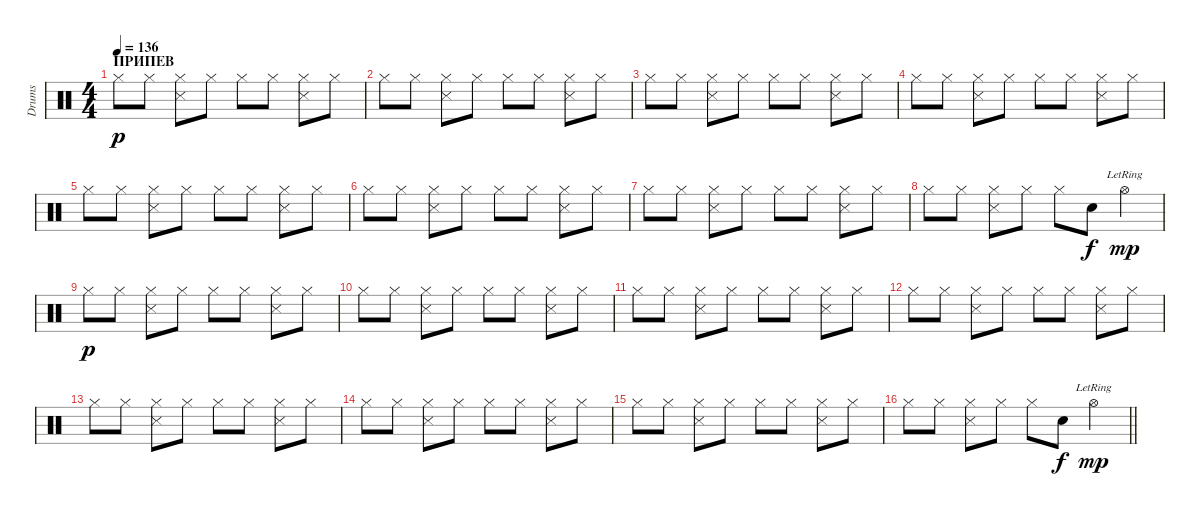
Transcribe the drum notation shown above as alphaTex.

\track ("Drums" "Drums") {instrument percussion}
\staff {score}
\articulation defaults
\ts (4 4)
\section ("" "ПРИПЕВ")
\tempo 136
\clef neutral
\ks c "Hi-Hat (closed)".8{dy p} "Hi-Hat (closed)".8
("Hi-Hat (closed)" "Snare (side stick) 3").8 "Hi-Hat (closed)".8 "Hi-Hat (closed)".8 "Hi-Hat (closed)".8 ("Hi-Hat (closed)" "Snare (side stick) 3").8 "Hi-Hat (closed)".8 |
"Hi-Hat (closed)".8 "Hi-Hat (closed)".8 ("Hi-Hat (closed)" "Snare (side stick) 3").8 "Hi-Hat (closed)".8 "Hi-Hat (closed)".8 "Hi-Hat (closed)".8 ("Hi-Hat (closed)" "Snare (side stick) 3").8 "Hi-Hat (closed)".8 |
"Hi-Hat (closed)".8 "Hi-Hat (closed)".8 ("Hi-Hat (closed)" "Snare (side stick) 3").8 "Hi-Hat (closed)".8 "Hi-Hat (closed)".8 "Hi-Hat (closed)".8 ("Hi-Hat (closed)" "Snare (side stick) 3").8 "Hi-Hat (closed)".8 |
"Hi-Hat (closed)".8 "Hi-Hat (closed)".8 ("Hi-Hat (closed)" "Snare (side stick) 3").8 "Hi-Hat (closed)".8 "Hi-Hat (closed)".8 "Hi-Hat (closed)".8 ("Hi-Hat (closed)" "Snare (side stick) 3").8 "Hi-Hat (closed)".8 |
"Hi-Hat (closed)".8 "Hi-Hat (closed)".8 ("Hi-Hat (closed)" "Snare (side stick) 3").8 "Hi-Hat (closed)".8 "Hi-Hat (closed)".8 "Hi-Hat (closed)".8 ("Hi-Hat (closed)" "Snare (side stick) 3").8 "Hi-Hat (closed)".8 |
"Hi-Hat (closed)".8 "Hi-Hat (closed)".8 ("Hi-Hat (closed)" "Snare (side stick) 3").8 "Hi-Hat (closed)".8 "Hi-Hat (closed)".8 "Hi-Hat (closed)".8 ("Hi-Hat (closed)" "Snare (side stick) 3").8 "Hi-Hat (closed)".8 |
"Hi-Hat (closed)".8 "Hi-Hat (closed)".8 ("Hi-Hat (closed)" "Snare (side stick) 3").8 "Hi-Hat (closed)".8 "Hi-Hat (closed)".8 "Hi-Hat (closed)".8 ("Hi-Hat (closed)" "Snare (side stick) 3").8 "Hi-Hat (closed)".8 |
"Hi-Hat (closed)".8 "Hi-Hat (closed)".8 ("Hi-Hat (closed)" "Snare (side stick) 3").8 "Hi-Hat (closed)".8 "Hi-Hat (closed)".8 "Electric Snare (hit)".8{dy f} "Hi-Hat (open)"{lr}.4{dy mp} |
"Hi-Hat (closed)".8{dy p} "Hi-Hat (closed)".8 ("Hi-Hat (closed)" "Snare (side stick) 3").8 "Hi-Hat (closed)".8 "Hi-Hat (closed)".8 "Hi-Hat (closed)".8 ("Hi-Hat (closed)" "Snare (side stick) 3").8 "Hi-Hat (closed)".8 |
"Hi-Hat (closed)".8 "Hi-Hat (closed)".8 ("Hi-Hat (closed)" "Snare (side stick) 3").8 "Hi-Hat (closed)".8 "Hi-Hat (closed)".8 "Hi-Hat (closed)".8 ("Hi-Hat (closed)" "Snare (side stick) 3").8 "Hi-Hat (closed)".8 |
"Hi-Hat (closed)".8 "Hi-Hat (closed)".8 ("Hi-Hat (closed)" "Snare (side stick) 3").8 "Hi-Hat (closed)".8 "Hi-Hat (closed)".8 "Hi-Hat (closed)".8 ("Hi-Hat (closed)" "Snare (side stick) 3").8 "Hi-Hat (closed)".8 |
"Hi-Hat (closed)".8 "Hi-Hat (closed)".8 ("Hi-Hat (closed)" "Snare (side stick) 3").8 "Hi-Hat (closed)".8 "Hi-Hat (closed)".8 "Hi-Hat (closed)".8 ("Hi-Hat (closed)" "Snare (side stick) 3").8 "Hi-Hat (closed)".8 |
"Hi-Hat (closed)".8 "Hi-Hat (closed)".8 ("Hi-Hat (closed)" "Snare (side stick) 3").8 "Hi-Hat (closed)".8 "Hi-Hat (closed)".8 "Hi-Hat (closed)".8 ("Hi-Hat (closed)" "Snare (side stick) 3").8 "Hi-Hat (closed)".8 |
"Hi-Hat (closed)".8 "Hi-Hat (closed)".8 ("Hi-Hat (closed)" "Snare (side stick) 3").8 "Hi-Hat (closed)".8 "Hi-Hat (closed)".8 "Hi-Hat (closed)".8 ("Hi-Hat (closed)" "Snare (side stick) 3").8 "Hi-Hat (closed)".8 |
"Hi-Hat (closed)".8 "Hi-Hat (closed)".8 ("Hi-Hat (closed)" "Snare (side stick) 3").8 "Hi-Hat (closed)".8 "Hi-Hat (closed)".8 "Hi-Hat (closed)".8 ("Hi-Hat (closed)" "Snare (side stick) 3").8 "Hi-Hat (closed)".8 |
\barLineRight lightlight "Hi-Hat (closed)".8 "Hi-Hat (closed)".8
("Hi-Hat (closed)" "Snare (side stick) 3").8 "Hi-Hat (closed)".8 "Hi-Hat (closed)".8 "Electric Snare (hit)".8{dy f} "Hi-Hat (open)"{lr}.4{dy mp}
